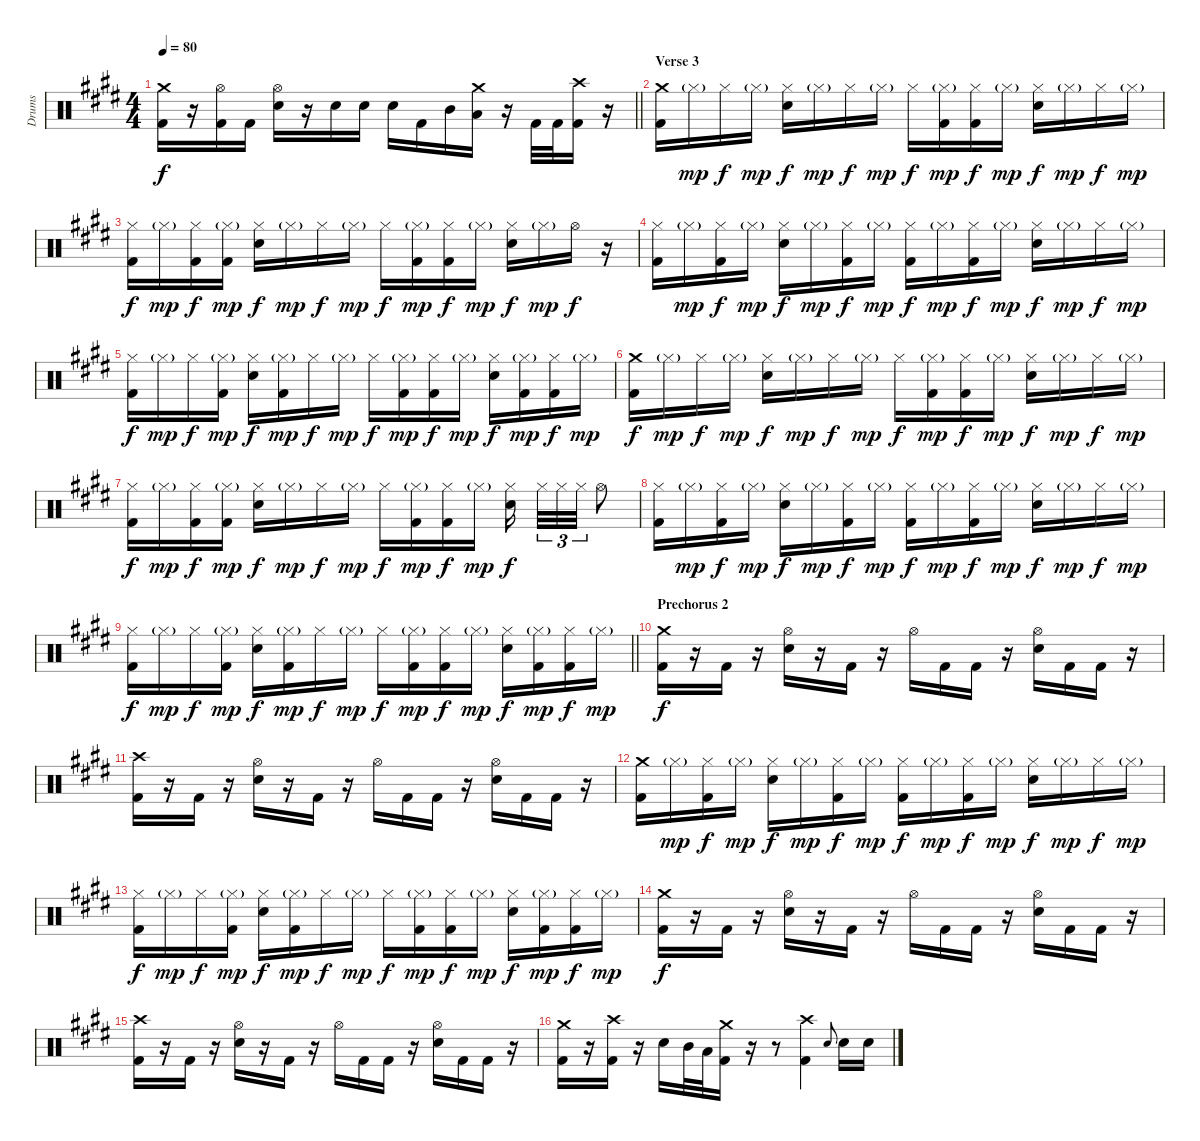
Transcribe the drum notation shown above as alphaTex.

\track ("Drums" "Drums") {instrument percussion}
\staff {score}
\articulation defaults
\ts (4 4)
\tempo 80
\clef neutral
\barLineRight lightlight
\ks e
("Crash medium (hit)" "Kick (hit) 2").16{dy f} r.16 ("Hi-Hat (open)" "Kick (hit) 2").16 "Kick (hit) 2".16 ("Hi-Hat (open)" "Snare (hit) 2").16 r.16 "Snare (hit) 2".16 "Snare (hit) 2".16 "Snare (hit) 2".16 "Kick (hit) 2".16 "Mid Tom (hit)".16 ("Crash medium (hit)" "Low Tom (hit)").16 r.16 "Kick (hit) 2".32 "Kick (hit) 2".32 ("Crash high (hit)" "Kick (hit) 2").16 r.16 |
\section ("" "Verse 3")
("Crash medium (hit)" "Kick (hit) 2").16 "Hi-Hat (closed)"{g}.16{dy mp} "Hi-Hat (closed)".16{dy f} "Hi-Hat (closed)"{g}.16{dy mp} ("Hi-Hat (closed)" "Snare (hit) 2").16{dy f} "Hi-Hat (closed)"{g}.16{dy mp} "Hi-Hat (closed)".16{dy f} "Hi-Hat (closed)"{g}.16{dy mp} "Hi-Hat (closed)".16{dy f} ("Hi-Hat (closed)"{g} "Kick (hit) 2").16{dy mp} ("Hi-Hat (closed)" "Kick (hit) 2").16{dy f} "Hi-Hat (closed)"{g}.16{dy mp} ("Hi-Hat (closed)" "Snare (hit) 2").16{dy f} "Hi-Hat (closed)"{g}.16{dy mp} "Hi-Hat (closed)".16{dy f} "Hi-Hat (closed)"{g}.16{dy mp} |
("Hi-Hat (closed)" "Kick (hit) 2").16{dy f} "Hi-Hat (closed)"{g}.16{dy mp} ("Hi-Hat (closed)" "Kick (hit) 2").16{dy f} ("Hi-Hat (closed)"{g} "Kick (hit) 2").16{dy mp} ("Hi-Hat (closed)" "Snare (hit) 2").16{dy f} "Hi-Hat (closed)"{g}.16{dy mp} "Hi-Hat (closed)".16{dy f} "Hi-Hat (closed)"{g}.16{dy mp} "Hi-Hat (closed)".16{dy f} ("Hi-Hat (closed)"{g} "Kick (hit) 2").16{dy mp} ("Hi-Hat (closed)" "Kick (hit) 2").16{dy f} "Hi-Hat (closed)"{g}.16{dy mp} ("Hi-Hat (closed)" "Snare (hit) 2").16{dy f} "Hi-Hat (closed)"{g}.16{dy mp} "Hi-Hat (open)".16{dy f} r.16 |
("Hi-Hat (closed)" "Kick (hit) 2").16 "Hi-Hat (closed)"{g}.16{dy mp} ("Hi-Hat (closed)" "Kick (hit) 2").16{dy f} "Hi-Hat (closed)"{g}.16{dy mp} ("Hi-Hat (closed)" "Snare (hit) 2").16{dy f} "Hi-Hat (closed)"{g}.16{dy mp} ("Hi-Hat (closed)" "Kick (hit) 2").16{dy f} "Hi-Hat (closed)"{g}.16{dy mp} ("Hi-Hat (closed)" "Kick (hit) 2").16{dy f} "Hi-Hat (closed)"{g}.16{dy mp} ("Hi-Hat (closed)" "Kick (hit) 2").16{dy f} "Hi-Hat (closed)"{g}.16{dy mp} ("Hi-Hat (closed)" "Snare (hit) 2").16{dy f} "Hi-Hat (closed)"{g}.16{dy mp} "Hi-Hat (closed)".16{dy f} "Hi-Hat (closed)"{g}.16{dy mp} |
("Hi-Hat (closed)" "Kick (hit) 2").16{dy f} "Hi-Hat (closed)"{g}.16{dy mp} "Hi-Hat (closed)".16{dy f} ("Hi-Hat (closed)"{g} "Kick (hit) 2").16{dy mp} ("Hi-Hat (closed)" "Snare (hit) 2").16{dy f} ("Hi-Hat (closed)"{g} "Kick (hit) 2").16{dy mp} "Hi-Hat (closed)".16{dy f} "Hi-Hat (closed)"{g}.16{dy mp} "Hi-Hat (closed)".16{dy f} ("Hi-Hat (closed)"{g} "Kick (hit) 2").16{dy mp} ("Hi-Hat (closed)" "Kick (hit) 2").16{dy f} "Hi-Hat (closed)"{g}.16{dy mp} ("Hi-Hat (closed)" "Snare (hit) 2").16{dy f} ("Hi-Hat (closed)"{g} "Kick (hit) 2").16{dy mp} ("Hi-Hat (closed)" "Kick (hit) 2").16{dy f} "Hi-Hat (closed)"{g}.16{dy mp} |
("Crash medium (hit)" "Kick (hit) 2").16{dy f} "Hi-Hat (closed)"{g}.16{dy mp} "Hi-Hat (closed)".16{dy f} "Hi-Hat (closed)"{g}.16{dy mp} ("Hi-Hat (closed)" "Snare (hit) 2").16{dy f} "Hi-Hat (closed)"{g}.16{dy mp} "Hi-Hat (closed)".16{dy f} "Hi-Hat (closed)"{g}.16{dy mp} "Hi-Hat (closed)".16{dy f} ("Hi-Hat (closed)"{g} "Kick (hit) 2").16{dy mp} ("Hi-Hat (closed)" "Kick (hit) 2").16{dy f} "Hi-Hat (closed)"{g}.16{dy mp} ("Hi-Hat (closed)" "Snare (hit) 2").16{dy f} "Hi-Hat (closed)"{g}.16{dy mp} "Hi-Hat (closed)".16{dy f} "Hi-Hat (closed)"{g}.16{dy mp} |
("Hi-Hat (closed)" "Kick (hit) 2").16{dy f} "Hi-Hat (closed)"{g}.16{dy mp} ("Hi-Hat (closed)" "Kick (hit) 2").16{dy f} ("Hi-Hat (closed)"{g} "Kick (hit) 2").16{dy mp} ("Hi-Hat (closed)" "Snare (hit) 2").16{dy f} "Hi-Hat (closed)"{g}.16{dy mp} "Hi-Hat (closed)".16{dy f} "Hi-Hat (closed)"{g}.16{dy mp} "Hi-Hat (closed)".16{dy f} ("Hi-Hat (closed)"{g} "Kick (hit) 2").16{dy mp} ("Hi-Hat (closed)" "Kick (hit) 2").16{dy f} "Hi-Hat (closed)"{g}.16{dy mp} ("Hi-Hat (closed)" "Snare (hit) 2").16{dy f beam splitsecondary} "Hi-Hat (closed)".32{tu (3 2)} "Hi-Hat (closed)".32{tu (3 2)} "Hi-Hat (closed)".32{tu (3 2)} "Hi-Hat (open)".8 |
("Hi-Hat (closed)" "Kick (hit) 2").16 "Hi-Hat (closed)"{g}.16{dy mp} ("Hi-Hat (closed)" "Kick (hit) 2").16{dy f} "Hi-Hat (closed)"{g}.16{dy mp} ("Hi-Hat (closed)" "Snare (hit) 2").16{dy f} "Hi-Hat (closed)"{g}.16{dy mp} ("Hi-Hat (closed)" "Kick (hit) 2").16{dy f} "Hi-Hat (closed)"{g}.16{dy mp} ("Hi-Hat (closed)" "Kick (hit) 2").16{dy f} "Hi-Hat (closed)"{g}.16{dy mp} ("Hi-Hat (closed)" "Kick (hit) 2").16{dy f} "Hi-Hat (closed)"{g}.16{dy mp} ("Hi-Hat (closed)" "Snare (hit) 2").16{dy f} "Hi-Hat (closed)"{g}.16{dy mp} "Hi-Hat (closed)".16{dy f} "Hi-Hat (closed)"{g}.16{dy mp} |
\barLineRight lightlight
("Hi-Hat (closed)" "Kick (hit) 2").16{dy f} "Hi-Hat (closed)"{g}.16{dy mp} "Hi-Hat (closed)".16{dy f} ("Hi-Hat (closed)"{g} "Kick (hit) 2").16{dy mp} ("Hi-Hat (closed)" "Snare (hit) 2").16{dy f} ("Hi-Hat (closed)"{g} "Kick (hit) 2").16{dy mp} "Hi-Hat (closed)".16{dy f} "Hi-Hat (closed)"{g}.16{dy mp} "Hi-Hat (closed)".16{dy f} ("Hi-Hat (closed)"{g} "Kick (hit) 2").16{dy mp} ("Hi-Hat (closed)" "Kick (hit) 2").16{dy f} "Hi-Hat (closed)"{g}.16{dy mp} ("Hi-Hat (closed)" "Snare (hit) 2").16{dy f} ("Hi-Hat (closed)"{g} "Kick (hit) 2").16{dy mp} ("Hi-Hat (closed)" "Kick (hit) 2").16{dy f} "Hi-Hat (closed)"{g}.16{dy mp} |
\section ("" "Prechorus 2")
("Crash medium (hit)" "Kick (hit) 2").16{dy f} r.16 "Kick (hit) 2".16 r.16 ("Hi-Hat (open)" "Snare (hit) 2").16 r.16 "Kick (hit) 2".16 r.16 "Hi-Hat (open)".16 "Kick (hit) 2".16 "Kick (hit) 2".16 r.16 ("Hi-Hat (open)" "Snare (hit) 2").16 "Kick (hit) 2".16 "Kick (hit) 2".16 r.16 |
("Crash high (hit)" "Kick (hit) 2").16 r.16 "Kick (hit) 2".16 r.16 ("Hi-Hat (open)" "Snare (hit) 2").16 r.16 "Kick (hit) 2".16 r.16 "Hi-Hat (open)".16 "Kick (hit) 2".16 "Kick (hit) 2".16 r.16 ("Hi-Hat (open)" "Snare (hit) 2").16 "Kick (hit) 2".16 "Kick (hit) 2".16 r.16 |
("Crash medium (hit)" "Kick (hit) 2").16 "Hi-Hat (closed)"{g}.16{dy mp} ("Hi-Hat (closed)" "Kick (hit) 2").16{dy f} "Hi-Hat (closed)"{g}.16{dy mp} ("Hi-Hat (closed)" "Snare (hit) 2").16{dy f} "Hi-Hat (closed)"{g}.16{dy mp} ("Hi-Hat (closed)" "Kick (hit) 2").16{dy f} "Hi-Hat (closed)"{g}.16{dy mp} ("Hi-Hat (closed)" "Kick (hit) 2").16{dy f} "Hi-Hat (closed)"{g}.16{dy mp} ("Hi-Hat (closed)" "Kick (hit) 2").16{dy f} "Hi-Hat (closed)"{g}.16{dy mp} ("Hi-Hat (closed)" "Snare (hit) 2").16{dy f} "Hi-Hat (closed)"{g}.16{dy mp} "Hi-Hat (closed)".16{dy f} "Hi-Hat (closed)"{g}.16{dy mp} |
("Hi-Hat (closed)" "Kick (hit) 2").16{dy f} "Hi-Hat (closed)"{g}.16{dy mp} "Hi-Hat (closed)".16{dy f} ("Hi-Hat (closed)"{g} "Kick (hit) 2").16{dy mp} ("Hi-Hat (closed)" "Snare (hit) 2").16{dy f} ("Hi-Hat (closed)"{g} "Kick (hit) 2").16{dy mp} "Hi-Hat (closed)".16{dy f} "Hi-Hat (closed)"{g}.16{dy mp} "Hi-Hat (closed)".16{dy f} ("Hi-Hat (closed)"{g} "Kick (hit) 2").16{dy mp} ("Hi-Hat (closed)" "Kick (hit) 2").16{dy f} "Hi-Hat (closed)"{g}.16{dy mp} ("Hi-Hat (closed)" "Snare (hit) 2").16{dy f} ("Hi-Hat (closed)"{g} "Kick (hit) 2").16{dy mp} ("Hi-Hat (closed)" "Kick (hit) 2").16{dy f} "Hi-Hat (closed)"{g}.16{dy mp} |
("Crash medium (hit)" "Kick (hit) 2").16{dy f} r.16 "Kick (hit) 2".16 r.16 ("Hi-Hat (open)" "Snare (hit) 2").16 r.16 "Kick (hit) 2".16 r.16 "Hi-Hat (open)".16 "Kick (hit) 2".16 "Kick (hit) 2".16 r.16 ("Hi-Hat (open)" "Snare (hit) 2").16 "Kick (hit) 2".16 "Kick (hit) 2".16 r.16 |
("Crash high (hit)" "Kick (hit) 2").16 r.16 "Kick (hit) 2".16 r.16 ("Hi-Hat (open)" "Snare (hit) 2").16 r.16 "Kick (hit) 2".16 r.16 "Hi-Hat (open)".16 "Kick (hit) 2".16 "Kick (hit) 2".16 r.16 ("Hi-Hat (open)" "Snare (hit) 2").16 "Kick (hit) 2".16 "Kick (hit) 2".16 r.16 |
("Crash medium (hit)" "Kick (hit) 2").16 r.16 ("Crash high (hit)" "Kick (hit) 2").16 r.16 "Snare (hit) 2".16 "Mid Tom (hit)".32 "Low Tom (hit)".32 ("Crash medium (hit)" "Kick (hit) 2").16 r.16 r.8 ("Crash high (hit)" "Kick (hit) 2").4 "Snare (hit) 2".8{gr onbeat} "Snare (hit) 2".16 "Snare (hit) 2".16
